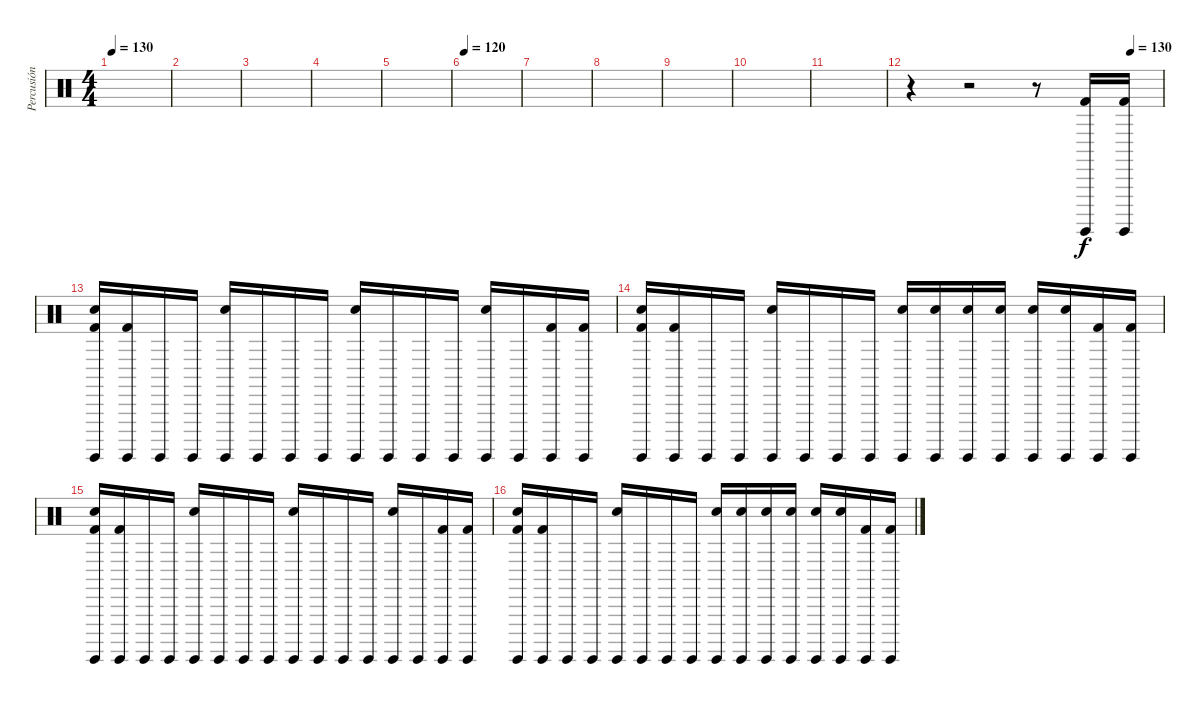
\track ("Percusión" "Percusión") {instrument percussion}
\staff {score}
\articulation defaults
\ts (4 4)
\tempo 130
\clef neutral
\ks c
|
|
|
|
|
\tempo 120
|
|
|
|
|
|
\tempo (130 0.875)
r.4 r.2 r.8 ("Kick (hit) 2" "Surdo (hit)").16 ("Kick (hit) 2" "Surdo (hit)").16 |
("Kick (hit) 2" "Electric Snare (hit)" "Surdo (hit)").16 ("Kick (hit) 2" "Surdo (hit)").16 "Surdo (hit)".16 "Surdo (hit)".16 ("Electric Snare (hit)" "Surdo (hit)").16 "Surdo (hit)".16 "Surdo (hit)".16 "Surdo (hit)".16 ("Electric Snare (hit)" "Surdo (hit)").16 "Surdo (hit)".16 "Surdo (hit)".16 "Surdo (hit)".16 ("Electric Snare (hit)" "Surdo (hit)").16 "Surdo (hit)".16 ("Kick (hit) 2" "Surdo (hit)").16 ("Kick (hit) 2" "Surdo (hit)").16 |
("Kick (hit) 2" "Electric Snare (hit)" "Surdo (hit)").16 ("Kick (hit) 2" "Surdo (hit)").16 "Surdo (hit)".16 "Surdo (hit)".16 ("Electric Snare (hit)" "Surdo (hit)").16 "Surdo (hit)".16 "Surdo (hit)".16 "Surdo (hit)".16 ("Electric Snare (hit)" "Surdo (hit)").16 ("Electric Snare (hit)" "Surdo (hit)").16 ("Electric Snare (hit)" "Surdo (hit)").16 ("Electric Snare (hit)" "Surdo (hit)").16 ("Electric Snare (hit)" "Surdo (hit)").16 ("Electric Snare (hit)" "Surdo (hit)").16 ("Kick (hit) 2" "Surdo (hit)").16 ("Kick (hit) 2" "Surdo (hit)").16 |
("Kick (hit) 2" "Electric Snare (hit)" "Surdo (hit)").16 ("Kick (hit) 2" "Surdo (hit)").16 "Surdo (hit)".16 "Surdo (hit)".16 ("Electric Snare (hit)" "Surdo (hit)").16 "Surdo (hit)".16 "Surdo (hit)".16 "Surdo (hit)".16 ("Electric Snare (hit)" "Surdo (hit)").16 "Surdo (hit)".16 "Surdo (hit)".16 "Surdo (hit)".16 ("Electric Snare (hit)" "Surdo (hit)").16 "Surdo (hit)".16 ("Kick (hit) 2" "Surdo (hit)").16 ("Kick (hit) 2" "Surdo (hit)").16 |
("Kick (hit) 2" "Electric Snare (hit)" "Surdo (hit)").16 ("Kick (hit) 2" "Surdo (hit)").16 "Surdo (hit)".16 "Surdo (hit)".16 ("Electric Snare (hit)" "Surdo (hit)").16 "Surdo (hit)".16 "Surdo (hit)".16 "Surdo (hit)".16 ("Electric Snare (hit)" "Surdo (hit)").16 ("Electric Snare (hit)" "Surdo (hit)").16 ("Electric Snare (hit)" "Surdo (hit)").16 ("Electric Snare (hit)" "Surdo (hit)").16 ("Electric Snare (hit)" "Surdo (hit)").16 ("Electric Snare (hit)" "Surdo (hit)").16 ("Kick (hit) 2" "Surdo (hit)").16 ("Kick (hit) 2" "Surdo (hit)").16
